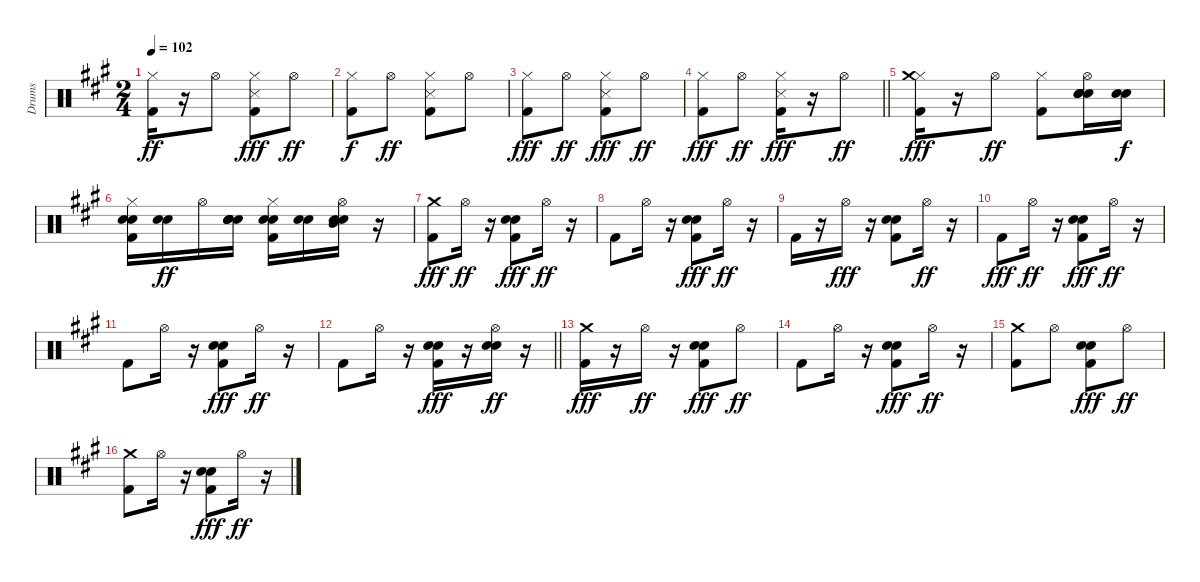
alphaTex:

\track ("Drums" "Drums") {instrument percussion}
\staff {score}
\articulation defaults
\ts (2 4)
\tempo 102
\clef neutral
\ks a
("Kick (hit) 2" "Hi-Hat (closed)").16{dy ff} r.16 "Hi-Hat (open)".8 ("Kick (hit) 2" "Snare (side stick) 3" "Hi-Hat (closed)").8{dy fff} "Hi-Hat (open)".8{dy ff} |
("Kick (hit) 2" "Hi-Hat (closed)").8{dy f} "Hi-Hat (open)".8{dy ff} ("Kick (hit) 2" "Snare (side stick) 3" "Hi-Hat (closed)").8 "Hi-Hat (open)".8 |
("Kick (hit) 2" "Hi-Hat (closed)").8{dy fff} "Hi-Hat (open)".8{dy ff} ("Kick (hit) 2" "Snare (side stick) 3" "Hi-Hat (closed)").8{dy fff} "Hi-Hat (open)".8{dy ff} |
\barLineRight lightlight
("Kick (hit) 2" "Hi-Hat (closed)").8{dy fff} "Hi-Hat (open)".8{dy ff} ("Kick (hit) 2" "Snare (side stick) 3" "Hi-Hat (closed)").16{dy fff} r.16 "Hi-Hat (open)".8{dy ff} |
("Kick (hit) 2" "Hi-Hat (closed)" "Crash medium (hit)").16{dy fff} r.16 "Hi-Hat (open)".8{dy ff} ("Kick (hit) 2" "Hi-Hat (closed)").8 ("Metronome (bell)" "Metronome (bell)" "Electric Snare (hit)" "Electric Snare (hit)" "Hi-Hat (open)").16 ("Metronome (bell)" "Electric Snare (hit)").16{dy f} |
("Metronome (bell)" "Kick (hit) 2" "Electric Snare (hit)" "Hi-Hat (closed)").16 ("Metronome (bell)" "Electric Snare (hit)").16{dy ff} "Hi-Hat (open)".16 ("Metronome (bell)" "Metronome (bell)" "Electric Snare (hit)" "Electric Snare (hit)").16 ("Metronome (bell)" "Kick (hit) 2" "Electric Snare (hit)" "Hi-Hat (closed)").16 ("Metronome (bell)" "Electric Snare (hit)").16 ("Metronome (bell)" "Electric Snare (hit)" "Hi-Hat (open)" "Mid Tom (hit)").16 r.16 |
("Kick (hit) 2" "Crash medium (hit)").8{dy fff} "Hi-Hat (open)".16{dy ff} r.16 ("Kick (hit) 2" "Metronome (bell)" "Electric Snare (hit)").8{dy fff} "Hi-Hat (open)".16{dy ff} r.16 |
"Kick (hit) 2".8 "Hi-Hat (open)".16 r.16 ("Kick (hit) 2" "Metronome (bell)" "Electric Snare (hit)").8{dy fff} "Hi-Hat (open)".16{dy ff} r.16 |
"Kick (hit) 2".16 r.16 "Hi-Hat (open)".16{dy fff} r.16 ("Kick (hit) 2" "Metronome (bell)" "Electric Snare (hit)").8 "Hi-Hat (open)".16{dy ff} r.16 |
"Kick (hit) 2".8{dy fff} "Hi-Hat (open)".16{dy ff} r.16 ("Kick (hit) 2" "Metronome (bell)" "Electric Snare (hit)").8{dy fff} "Hi-Hat (open)".16{dy ff} r.16 |
"Kick (hit) 2".8 "Hi-Hat (open)".16 r.16 ("Kick (hit) 2" "Metronome (bell)" "Electric Snare (hit)").8{dy fff} "Hi-Hat (open)".16{dy ff} r.16 |
\barLineRight lightlight "Kick (hit) 2".8 "Hi-Hat (open)".16
r.16 ("Kick (hit) 2" "Metronome (bell)" "Electric Snare (hit)").16{dy fff} r.16 ("Metronome (bell)" "Electric Snare (hit)" "Hi-Hat (open)").16{dy ff} r.16 |
("Kick (hit) 2" "Crash medium (hit)").16{dy fff} r.16 "Hi-Hat (open)".16{dy ff} r.16 ("Kick (hit) 2" "Metronome (bell)" "Electric Snare (hit)").8{dy fff} "Hi-Hat (open)".8{dy ff} |
"Kick (hit) 2".8 "Hi-Hat (open)".16 r.16 ("Kick (hit) 2" "Metronome (bell)" "Electric Snare (hit)").8{dy fff} "Hi-Hat (open)".16{dy ff} r.16 |
("Kick (hit) 2" "Crash medium (hit)").8 "Hi-Hat (open)".8 ("Kick (hit) 2" "Metronome (bell)" "Electric Snare (hit)").8{dy fff} "Hi-Hat (open)".8{dy ff} |
("Kick (hit) 2" "Crash medium (hit)").8 "Hi-Hat (open)".16 r.16 ("Kick (hit) 2" "Metronome (bell)" "Electric Snare (hit)").8{dy fff} "Hi-Hat (open)".16{dy ff} r.16
